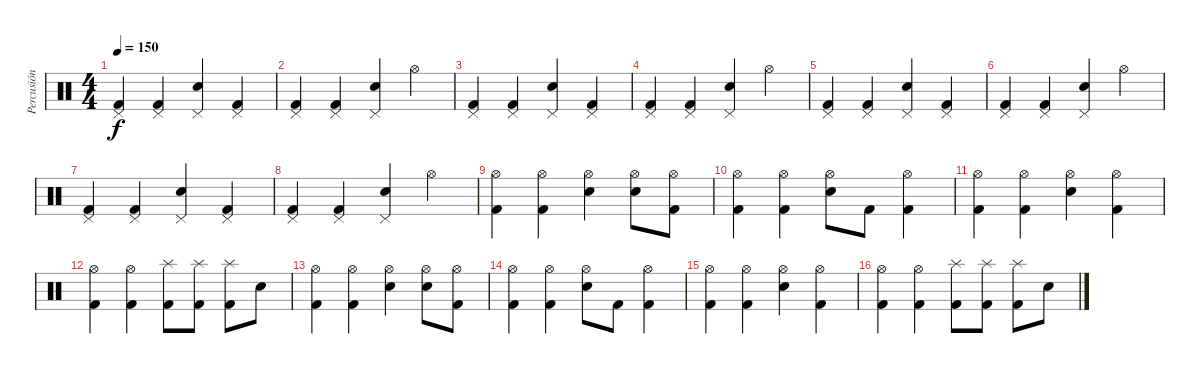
\track ("Percusión" "Percusión") {instrument percussion}
\staff {score}
\articulation defaults
\ts (4 4)
\tempo 150
\clef neutral
\ks c
("Kick (hit) 2" "Pedal Hi-Hat (hit)").4{dy f} ("Kick (hit) 2" "Pedal Hi-Hat (hit)").4 ("Snare (hit) 2" "Pedal Hi-Hat (hit)").4 ("Kick (hit) 2" "Pedal Hi-Hat (hit)").4 |
("Kick (hit) 2" "Pedal Hi-Hat (hit)").4 ("Kick (hit) 2" "Pedal Hi-Hat (hit)").4 ("Snare (hit) 2" "Pedal Hi-Hat (hit)").4 "Hi-Hat (open)".4 |
("Kick (hit) 2" "Pedal Hi-Hat (hit)").4 ("Kick (hit) 2" "Pedal Hi-Hat (hit)").4 ("Snare (hit) 2" "Pedal Hi-Hat (hit)").4 ("Kick (hit) 2" "Pedal Hi-Hat (hit)").4 |
("Kick (hit) 2" "Pedal Hi-Hat (hit)").4 ("Kick (hit) 2" "Pedal Hi-Hat (hit)").4 ("Snare (hit) 2" "Pedal Hi-Hat (hit)").4 "Hi-Hat (open)".4 |
("Kick (hit) 2" "Pedal Hi-Hat (hit)").4 ("Kick (hit) 2" "Pedal Hi-Hat (hit)").4 ("Snare (hit) 2" "Pedal Hi-Hat (hit)").4 ("Kick (hit) 2" "Pedal Hi-Hat (hit)").4 |
("Kick (hit) 2" "Pedal Hi-Hat (hit)").4 ("Kick (hit) 2" "Pedal Hi-Hat (hit)").4 ("Snare (hit) 2" "Pedal Hi-Hat (hit)").4 "Hi-Hat (open)".4 |
("Kick (hit) 2" "Pedal Hi-Hat (hit)").4 ("Kick (hit) 2" "Pedal Hi-Hat (hit)").4 ("Snare (hit) 2" "Pedal Hi-Hat (hit)").4 ("Kick (hit) 2" "Pedal Hi-Hat (hit)").4 |
("Kick (hit) 2" "Pedal Hi-Hat (hit)").4 ("Kick (hit) 2" "Pedal Hi-Hat (hit)").4 ("Snare (hit) 2" "Pedal Hi-Hat (hit)").4 "Hi-Hat (open)".4 |
("Kick (hit) 2" "Hi-Hat (open)").4 ("Kick (hit) 2" "Hi-Hat (open)").4 ("Snare (hit) 2" "Hi-Hat (open)").4 ("Snare (hit) 2" "Hi-Hat (open)").8 ("Kick (hit) 2" "Hi-Hat (open)").8 |
("Kick (hit) 2" "Hi-Hat (open)").4 ("Kick (hit) 2" "Hi-Hat (open)").4 ("Snare (hit) 2" "Hi-Hat (open)").8 "Kick (hit) 2".8 ("Kick (hit) 2" "Hi-Hat (open)").4 |
("Kick (hit) 2" "Hi-Hat (open)").4 ("Kick (hit) 2" "Hi-Hat (open)").4 ("Snare (hit) 2" "Hi-Hat (open)").4 ("Kick (hit) 2" "Hi-Hat (open)").4 |
("Kick (hit) 2" "Hi-Hat (open)").4 ("Kick (hit) 2" "Hi-Hat (open)").4 ("Kick (hit) 2" "Splash (hit)").8 ("Kick (hit) 2" "Splash (hit)").8 ("Kick (hit) 2" "Splash (hit)").8 "Snare (hit) 2".8 |
("Kick (hit) 2" "Hi-Hat (open)").4 ("Kick (hit) 2" "Hi-Hat (open)").4 ("Snare (hit) 2" "Hi-Hat (open)").4 ("Snare (hit) 2" "Hi-Hat (open)").8 ("Kick (hit) 2" "Hi-Hat (open)").8 |
("Kick (hit) 2" "Hi-Hat (open)").4 ("Kick (hit) 2" "Hi-Hat (open)").4 ("Snare (hit) 2" "Hi-Hat (open)").8 "Kick (hit) 2".8 ("Kick (hit) 2" "Hi-Hat (open)").4 |
("Kick (hit) 2" "Hi-Hat (open)").4 ("Kick (hit) 2" "Hi-Hat (open)").4 ("Snare (hit) 2" "Hi-Hat (open)").4 ("Kick (hit) 2" "Hi-Hat (open)").4 |
("Kick (hit) 2" "Hi-Hat (open)").4 ("Kick (hit) 2" "Hi-Hat (open)").4 ("Kick (hit) 2" "Splash (hit)").8 ("Kick (hit) 2" "Splash (hit)").8 ("Kick (hit) 2" "Splash (hit)").8 "Snare (hit) 2".8
